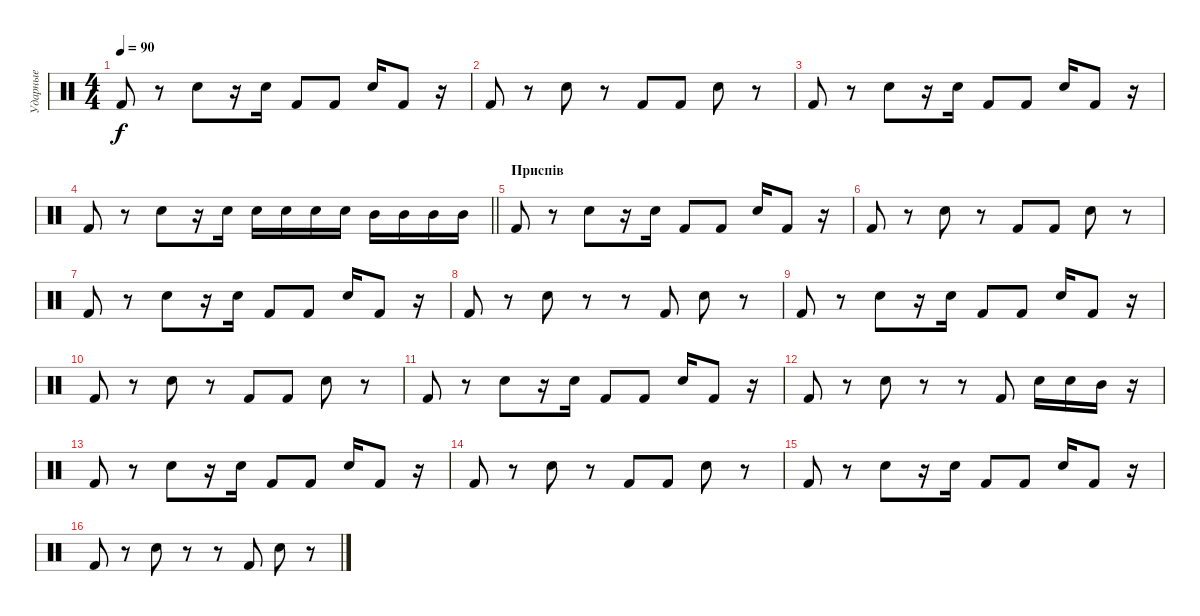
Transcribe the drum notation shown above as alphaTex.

\track ("Ударные" "Ударные") {instrument percussion}
\staff {score}
\articulation defaults
\ts (4 4)
\tempo 90
\clef neutral
\ks c "Kick (hit) 2".8{dy f}
r.8 "Snare (hit) 2".8 r.16 "Snare (hit) 2".16 "Kick (hit) 2".8 "Kick (hit) 2".8 "Snare (hit) 2".16 "Kick (hit) 2".8 r.16 |
"Kick (hit) 2".8 r.8 "Snare (hit) 2".8 r.8 "Kick (hit) 2".8 "Kick (hit) 2".8 "Snare (hit) 2".8 r.8 |
"Kick (hit) 2".8 r.8 "Snare (hit) 2".8 r.16 "Snare (hit) 2".16 "Kick (hit) 2".8 "Kick (hit) 2".8 "Snare (hit) 2".16 "Kick (hit) 2".8 r.16 |
\barLineRight lightlight "Kick (hit) 2".8
r.8 "Snare (hit) 2".8 r.16 "Snare (hit) 2".16 "Snare (hit) 2".16 "Snare (hit) 2".16 "Snare (hit) 2".16 "Snare (hit) 2".16 "Mid Tom (hit)".16 "Mid Tom (hit)".16 "Mid Tom (hit)".16 "Mid Tom (hit)".16 |
\section ("" "Приспів")
"Kick (hit) 2".8 r.8 "Snare (hit) 2".8 r.16 "Snare (hit) 2".16 "Kick (hit) 2".8 "Kick (hit) 2".8 "Snare (hit) 2".16 "Kick (hit) 2".8 r.16 |
"Kick (hit) 2".8 r.8 "Snare (hit) 2".8 r.8 "Kick (hit) 2".8 "Kick (hit) 2".8 "Snare (hit) 2".8 r.8 |
"Kick (hit) 2".8 r.8 "Snare (hit) 2".8 r.16 "Snare (hit) 2".16 "Kick (hit) 2".8 "Kick (hit) 2".8 "Snare (hit) 2".16 "Kick (hit) 2".8 r.16 |
"Kick (hit) 2".8 r.8 "Snare (hit) 2".8 r.8 r.8 "Kick (hit) 2".8 "Snare (hit) 2".8 r.8 |
"Kick (hit) 2".8 r.8 "Snare (hit) 2".8 r.16 "Snare (hit) 2".16 "Kick (hit) 2".8 "Kick (hit) 2".8 "Snare (hit) 2".16 "Kick (hit) 2".8 r.16 |
"Kick (hit) 2".8 r.8 "Snare (hit) 2".8 r.8 "Kick (hit) 2".8 "Kick (hit) 2".8 "Snare (hit) 2".8 r.8 |
"Kick (hit) 2".8 r.8 "Snare (hit) 2".8 r.16 "Snare (hit) 2".16 "Kick (hit) 2".8 "Kick (hit) 2".8 "Snare (hit) 2".16 "Kick (hit) 2".8 r.16 |
"Kick (hit) 2".8 r.8 "Snare (hit) 2".8 r.8 r.8 "Kick (hit) 2".8 "Snare (hit) 2".16 "Snare (hit) 2".16 "Mid Tom (hit)".16 r.16 |
"Kick (hit) 2".8 r.8 "Snare (hit) 2".8 r.16 "Snare (hit) 2".16 "Kick (hit) 2".8 "Kick (hit) 2".8 "Snare (hit) 2".16 "Kick (hit) 2".8 r.16 |
"Kick (hit) 2".8 r.8 "Snare (hit) 2".8 r.8 "Kick (hit) 2".8 "Kick (hit) 2".8 "Snare (hit) 2".8 r.8 |
"Kick (hit) 2".8 r.8 "Snare (hit) 2".8 r.16 "Snare (hit) 2".16 "Kick (hit) 2".8 "Kick (hit) 2".8 "Snare (hit) 2".16 "Kick (hit) 2".8 r.16 |
"Kick (hit) 2".8 r.8 "Snare (hit) 2".8 r.8 r.8 "Kick (hit) 2".8 "Snare (hit) 2".8 r.8
